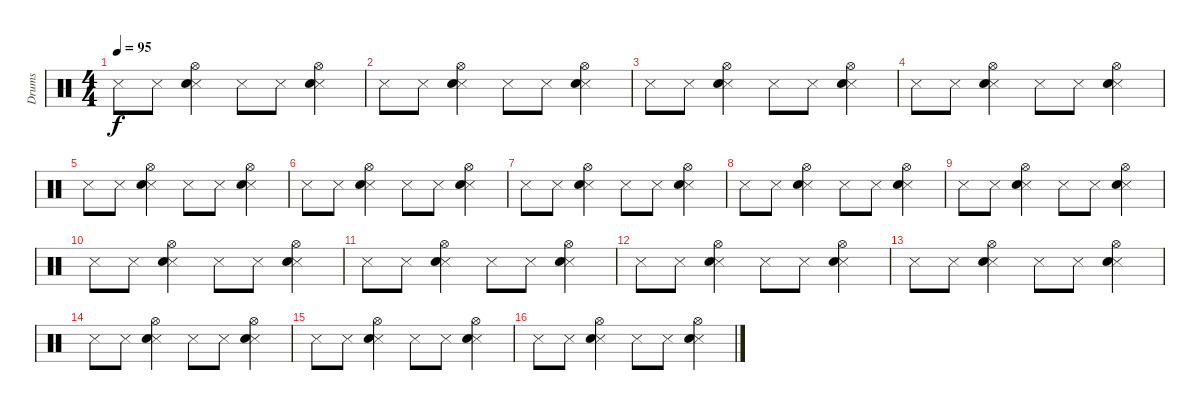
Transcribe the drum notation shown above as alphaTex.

\track ("Drums" "Drums") {instrument percussion}
\staff {score}
\articulation defaults
\ts (4 4)
\tempo 95
\clef neutral
\ks c "Snare (side stick) 3".8{dy f} "Snare (side stick) 3".8
("Snare (side stick) 3" "Hi-Hat (open)" "Snare (hit) 2").4 "Snare (side stick) 3".8 "Snare (side stick) 3".8 ("Snare (side stick) 3" "Hi-Hat (open)" "Snare (hit) 2").4 |
"Snare (side stick) 3".8 "Snare (side stick) 3".8 ("Snare (side stick) 3" "Hi-Hat (open)" "Snare (hit) 2").4 "Snare (side stick) 3".8 "Snare (side stick) 3".8 ("Snare (side stick) 3" "Hi-Hat (open)" "Snare (hit) 2").4 |
"Snare (side stick) 3".8 "Snare (side stick) 3".8 ("Snare (side stick) 3" "Hi-Hat (open)" "Snare (hit) 2").4 "Snare (side stick) 3".8 "Snare (side stick) 3".8 ("Snare (side stick) 3" "Hi-Hat (open)" "Snare (hit) 2").4 |
"Snare (side stick) 3".8 "Snare (side stick) 3".8 ("Snare (side stick) 3" "Hi-Hat (open)" "Snare (hit) 2").4 "Snare (side stick) 3".8 "Snare (side stick) 3".8 ("Snare (side stick) 3" "Hi-Hat (open)" "Snare (hit) 2").4 |
"Snare (side stick) 3".8 "Snare (side stick) 3".8 ("Snare (side stick) 3" "Hi-Hat (open)" "Snare (hit) 2").4 "Snare (side stick) 3".8 "Snare (side stick) 3".8 ("Snare (side stick) 3" "Hi-Hat (open)" "Snare (hit) 2").4 |
"Snare (side stick) 3".8 "Snare (side stick) 3".8 ("Snare (side stick) 3" "Hi-Hat (open)" "Snare (hit) 2").4 "Snare (side stick) 3".8 "Snare (side stick) 3".8 ("Snare (side stick) 3" "Hi-Hat (open)" "Snare (hit) 2").4 |
"Snare (side stick) 3".8 "Snare (side stick) 3".8 ("Snare (side stick) 3" "Hi-Hat (open)" "Snare (hit) 2").4 "Snare (side stick) 3".8 "Snare (side stick) 3".8 ("Snare (side stick) 3" "Hi-Hat (open)" "Snare (hit) 2").4 |
"Snare (side stick) 3".8 "Snare (side stick) 3".8 ("Snare (side stick) 3" "Hi-Hat (open)" "Snare (hit) 2").4 "Snare (side stick) 3".8 "Snare (side stick) 3".8 ("Snare (side stick) 3" "Hi-Hat (open)" "Snare (hit) 2").4 |
"Snare (side stick) 3".8 "Snare (side stick) 3".8 ("Snare (side stick) 3" "Hi-Hat (open)" "Snare (hit) 2").4 "Snare (side stick) 3".8 "Snare (side stick) 3".8 ("Snare (side stick) 3" "Hi-Hat (open)" "Snare (hit) 2").4 |
"Snare (side stick) 3".8 "Snare (side stick) 3".8 ("Snare (side stick) 3" "Hi-Hat (open)" "Snare (hit) 2").4 "Snare (side stick) 3".8 "Snare (side stick) 3".8 ("Snare (side stick) 3" "Hi-Hat (open)" "Snare (hit) 2").4 |
"Snare (side stick) 3".8 "Snare (side stick) 3".8 ("Snare (side stick) 3" "Hi-Hat (open)" "Snare (hit) 2").4 "Snare (side stick) 3".8 "Snare (side stick) 3".8 ("Snare (side stick) 3" "Hi-Hat (open)" "Snare (hit) 2").4 |
"Snare (side stick) 3".8 "Snare (side stick) 3".8 ("Snare (side stick) 3" "Hi-Hat (open)" "Snare (hit) 2").4 "Snare (side stick) 3".8 "Snare (side stick) 3".8 ("Snare (side stick) 3" "Hi-Hat (open)" "Snare (hit) 2").4 |
"Snare (side stick) 3".8 "Snare (side stick) 3".8 ("Snare (side stick) 3" "Hi-Hat (open)" "Snare (hit) 2").4 "Snare (side stick) 3".8 "Snare (side stick) 3".8 ("Snare (side stick) 3" "Hi-Hat (open)" "Snare (hit) 2").4 |
"Snare (side stick) 3".8 "Snare (side stick) 3".8 ("Snare (side stick) 3" "Hi-Hat (open)" "Snare (hit) 2").4 "Snare (side stick) 3".8 "Snare (side stick) 3".8 ("Snare (side stick) 3" "Hi-Hat (open)" "Snare (hit) 2").4 |
"Snare (side stick) 3".8 "Snare (side stick) 3".8 ("Snare (side stick) 3" "Hi-Hat (open)" "Snare (hit) 2").4 "Snare (side stick) 3".8 "Snare (side stick) 3".8 ("Snare (side stick) 3" "Hi-Hat (open)" "Snare (hit) 2").4 |
"Snare (side stick) 3".8 "Snare (side stick) 3".8 ("Snare (side stick) 3" "Hi-Hat (open)" "Snare (hit) 2").4 "Snare (side stick) 3".8 "Snare (side stick) 3".8 ("Snare (side stick) 3" "Hi-Hat (open)" "Snare (hit) 2").4
